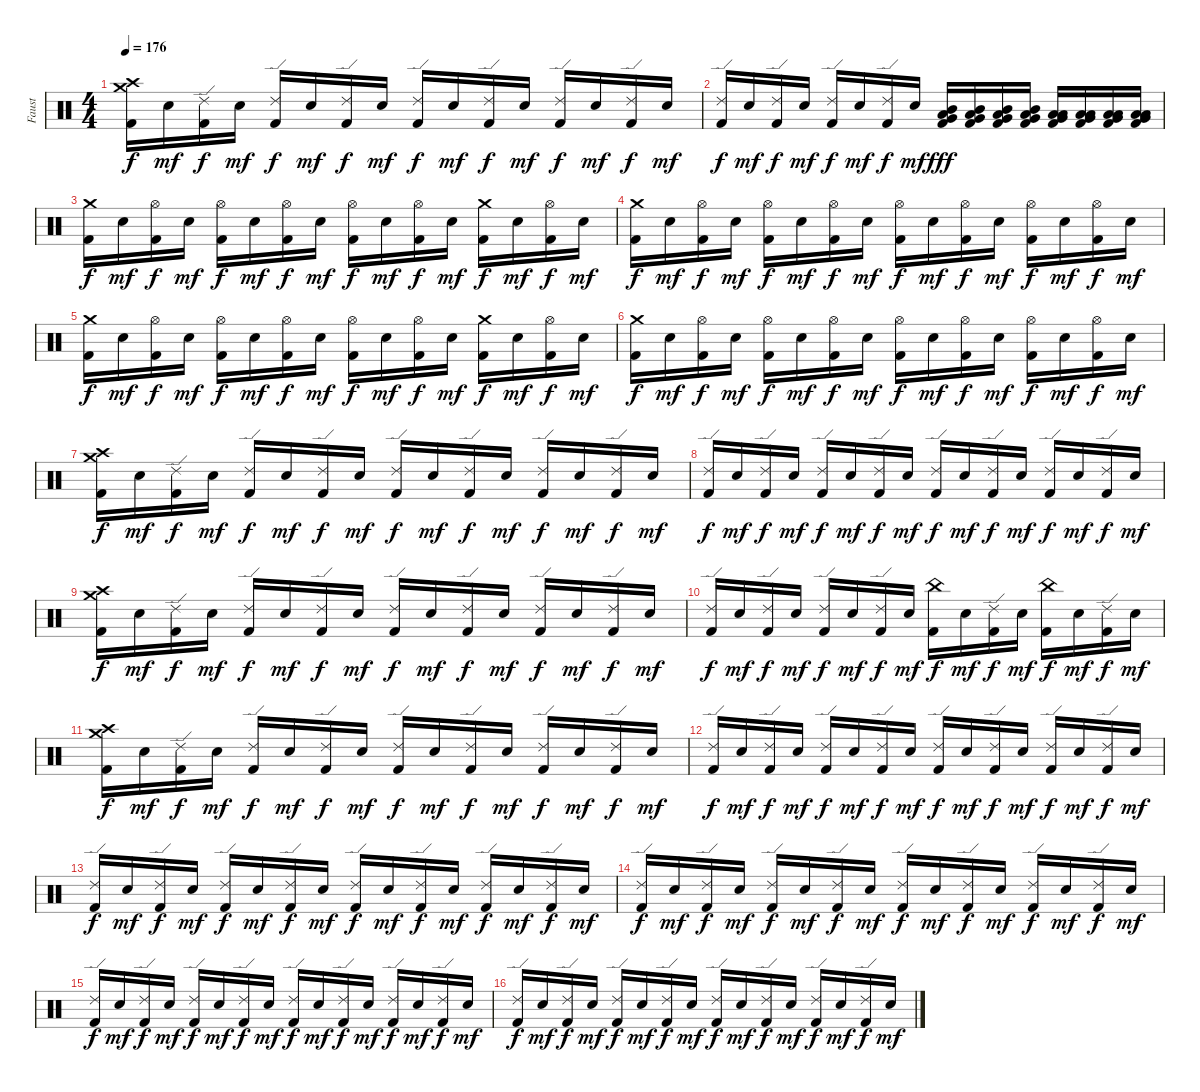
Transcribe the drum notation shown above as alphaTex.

\track ("Faust" "Faust") {instrument percussion}
\staff {score}
\articulation defaults
\ts (4 4)
\tempo 176
\clef neutral
\ks c
("Crash high (hit)" "Crash medium (hit)" "Kick (hit) 2").16{dy f} "Electric Snare (hit)".16{dy mf} ("Ride (edge) 2" "Kick (hit) 2").16{dy f} "Electric Snare (hit)".16{dy mf} ("Ride (edge) 2" "Kick (hit) 2").16{dy f} "Electric Snare (hit)".16{dy mf} ("Ride (edge) 2" "Kick (hit) 2").16{dy f} "Electric Snare (hit)".16{dy mf} ("Ride (edge) 2" "Kick (hit) 2").16{dy f} "Electric Snare (hit)".16{dy mf} ("Ride (edge) 2" "Kick (hit) 2").16{dy f} "Electric Snare (hit)".16{dy mf} ("Ride (edge) 2" "Kick (hit) 2").16{dy f} "Electric Snare (hit)".16{dy mf} ("Ride (edge) 2" "Kick (hit) 2").16{dy f} "Electric Snare (hit)".16{dy mf} |
("Ride (edge) 2" "Kick (hit) 2").16{dy f} "Electric Snare (hit)".16{dy mf} ("Ride (edge) 2" "Kick (hit) 2").16{dy f} "Electric Snare (hit)".16{dy mf} ("Ride (edge) 2" "Kick (hit) 2").16{dy f} "Electric Snare (hit)".16{dy mf} ("Ride (edge) 2" "Kick (hit) 2").16{dy f} "Electric Snare (hit)".16{dy mf} ("Mid Tom (hit)" "Low Tom (hit)" "Very Low Tom (hit)" "Kick (hit) 2").16{dy fff} ("Mid Tom (hit)" "Low Tom (hit)" "Very Low Tom (hit)" "Kick (hit) 2").16 ("Mid Tom (hit)" "Low Tom (hit)" "Very Low Tom (hit)" "Kick (hit) 2").16 ("Mid Tom (hit)" "Low Tom (hit)" "Very Low Tom (hit)" "Kick (hit) 2").16 ("Low Tom (hit)" "Very Low Tom (hit)" "Low Floor Tom (hit)" "Kick (hit) 2").16 ("Low Tom (hit)" "Very Low Tom (hit)" "Low Floor Tom (hit)" "Kick (hit) 2").16 ("Low Tom (hit)" "Very Low Tom (hit)" "Low Floor Tom (hit)" "Kick (hit) 2").16 ("Low Tom (hit)" "Very Low Tom (hit)" "Low Floor Tom (hit)" "Kick (hit) 2").16 |
("Crash medium (hit)" "Kick (hit) 2").16{dy f} "Electric Snare (hit)".16{dy mf} ("Hi-Hat (open)" "Kick (hit) 2").16{dy f} "Electric Snare (hit)".16{dy mf} ("Hi-Hat (open)" "Kick (hit) 2").16{dy f} "Electric Snare (hit)".16{dy mf} ("Hi-Hat (open)" "Kick (hit) 2").16{dy f} "Electric Snare (hit)".16{dy mf} ("Hi-Hat (open)" "Kick (hit) 2").16{dy f} "Electric Snare (hit)".16{dy mf} ("Hi-Hat (open)" "Kick (hit) 2").16{dy f} "Electric Snare (hit)".16{dy mf} ("Crash medium (hit)" "Kick (hit) 2").16{dy f} "Electric Snare (hit)".16{dy mf} ("Hi-Hat (open)" "Kick (hit) 2").16{dy f} "Electric Snare (hit)".16{dy mf} |
("Crash medium (hit)" "Kick (hit) 2").16{dy f} "Electric Snare (hit)".16{dy mf} ("Hi-Hat (open)" "Kick (hit) 2").16{dy f} "Electric Snare (hit)".16{dy mf} ("Hi-Hat (open)" "Kick (hit) 2").16{dy f} "Electric Snare (hit)".16{dy mf} ("Hi-Hat (open)" "Kick (hit) 2").16{dy f} "Electric Snare (hit)".16{dy mf} ("Hi-Hat (open)" "Kick (hit) 2").16{dy f} "Electric Snare (hit)".16{dy mf} ("Hi-Hat (open)" "Kick (hit) 2").16{dy f} "Electric Snare (hit)".16{dy mf} ("Hi-Hat (open)" "Kick (hit) 2").16{dy f} "Electric Snare (hit)".16{dy mf} ("Hi-Hat (open)" "Kick (hit) 2").16{dy f} "Electric Snare (hit)".16{dy mf} |
("Crash medium (hit)" "Kick (hit) 2").16{dy f} "Electric Snare (hit)".16{dy mf} ("Hi-Hat (open)" "Kick (hit) 2").16{dy f} "Electric Snare (hit)".16{dy mf} ("Hi-Hat (open)" "Kick (hit) 2").16{dy f} "Electric Snare (hit)".16{dy mf} ("Hi-Hat (open)" "Kick (hit) 2").16{dy f} "Electric Snare (hit)".16{dy mf} ("Hi-Hat (open)" "Kick (hit) 2").16{dy f} "Electric Snare (hit)".16{dy mf} ("Hi-Hat (open)" "Kick (hit) 2").16{dy f} "Electric Snare (hit)".16{dy mf} ("Crash medium (hit)" "Kick (hit) 2").16{dy f} "Electric Snare (hit)".16{dy mf} ("Hi-Hat (open)" "Kick (hit) 2").16{dy f} "Electric Snare (hit)".16{dy mf} |
("Crash medium (hit)" "Kick (hit) 2").16{dy f} "Electric Snare (hit)".16{dy mf} ("Hi-Hat (open)" "Kick (hit) 2").16{dy f} "Electric Snare (hit)".16{dy mf} ("Hi-Hat (open)" "Kick (hit) 2").16{dy f} "Electric Snare (hit)".16{dy mf} ("Hi-Hat (open)" "Kick (hit) 2").16{dy f} "Electric Snare (hit)".16{dy mf} ("Hi-Hat (open)" "Kick (hit) 2").16{dy f} "Electric Snare (hit)".16{dy mf} ("Hi-Hat (open)" "Kick (hit) 2").16{dy f} "Electric Snare (hit)".16{dy mf} ("Hi-Hat (open)" "Kick (hit) 2").16{dy f} "Electric Snare (hit)".16{dy mf} ("Hi-Hat (open)" "Kick (hit) 2").16{dy f} "Electric Snare (hit)".16{dy mf} |
("Crash high (hit)" "Crash medium (hit)" "Kick (hit) 2").16{dy f} "Electric Snare (hit)".16{dy mf} ("Ride (edge) 2" "Kick (hit) 2").16{dy f} "Electric Snare (hit)".16{dy mf} ("Ride (edge) 2" "Kick (hit) 2").16{dy f} "Electric Snare (hit)".16{dy mf} ("Ride (edge) 2" "Kick (hit) 2").16{dy f} "Electric Snare (hit)".16{dy mf} ("Ride (edge) 2" "Kick (hit) 2").16{dy f} "Electric Snare (hit)".16{dy mf} ("Ride (edge) 2" "Kick (hit) 2").16{dy f} "Electric Snare (hit)".16{dy mf} ("Ride (edge) 2" "Kick (hit) 2").16{dy f} "Electric Snare (hit)".16{dy mf} ("Ride (edge) 2" "Kick (hit) 2").16{dy f} "Electric Snare (hit)".16{dy mf} |
("Ride (edge) 2" "Kick (hit) 2").16{dy f} "Electric Snare (hit)".16{dy mf} ("Ride (edge) 2" "Kick (hit) 2").16{dy f} "Electric Snare (hit)".16{dy mf} ("Ride (edge) 2" "Kick (hit) 2").16{dy f} "Electric Snare (hit)".16{dy mf} ("Ride (edge) 2" "Kick (hit) 2").16{dy f} "Electric Snare (hit)".16{dy mf} ("Ride (edge) 2" "Kick (hit) 2").16{dy f} "Electric Snare (hit)".16{dy mf} ("Ride (edge) 2" "Kick (hit) 2").16{dy f} "Electric Snare (hit)".16{dy mf} ("Ride (edge) 2" "Kick (hit) 2").16{dy f} "Electric Snare (hit)".16{dy mf} ("Ride (edge) 2" "Kick (hit) 2").16{dy f} "Electric Snare (hit)".16{dy mf} |
("Crash high (hit)" "Crash medium (hit)" "Kick (hit) 2").16{dy f} "Electric Snare (hit)".16{dy mf} ("Ride (edge) 2" "Kick (hit) 2").16{dy f} "Electric Snare (hit)".16{dy mf} ("Ride (edge) 2" "Kick (hit) 2").16{dy f} "Electric Snare (hit)".16{dy mf} ("Ride (edge) 2" "Kick (hit) 2").16{dy f} "Electric Snare (hit)".16{dy mf} ("Ride (edge) 2" "Kick (hit) 2").16{dy f} "Electric Snare (hit)".16{dy mf} ("Ride (edge) 2" "Kick (hit) 2").16{dy f} "Electric Snare (hit)".16{dy mf} ("Ride (edge) 2" "Kick (hit) 2").16{dy f} "Electric Snare (hit)".16{dy mf} ("Ride (edge) 2" "Kick (hit) 2").16{dy f} "Electric Snare (hit)".16{dy mf} |
("Ride (edge) 2" "Kick (hit) 2").16{dy f} "Electric Snare (hit)".16{dy mf} ("Ride (edge) 2" "Kick (hit) 2").16{dy f} "Electric Snare (hit)".16{dy mf} ("Ride (edge) 2" "Kick (hit) 2").16{dy f} "Electric Snare (hit)".16{dy mf} ("Ride (edge) 2" "Kick (hit) 2").16{dy f} "Electric Snare (hit)".16{dy mf} ("China (hit)" "Kick (hit) 2").16{dy f} "Electric Snare (hit)".16{dy mf} ("Ride (edge) 2" "Kick (hit) 2").16{dy f} "Electric Snare (hit)".16{dy mf} ("China (hit)" "Kick (hit) 2").16{dy f} "Electric Snare (hit)".16{dy mf} ("Ride (edge) 2" "Kick (hit) 2").16{dy f} "Electric Snare (hit)".16{dy mf} |
("Crash high (hit)" "Crash medium (hit)" "Kick (hit) 2").16{dy f} "Electric Snare (hit)".16{dy mf} ("Ride (edge) 2" "Kick (hit) 2").16{dy f} "Electric Snare (hit)".16{dy mf} ("Ride (edge) 2" "Kick (hit) 2").16{dy f} "Electric Snare (hit)".16{dy mf} ("Ride (edge) 2" "Kick (hit) 2").16{dy f} "Electric Snare (hit)".16{dy mf} ("Ride (edge) 2" "Kick (hit) 2").16{dy f} "Electric Snare (hit)".16{dy mf} ("Ride (edge) 2" "Kick (hit) 2").16{dy f} "Electric Snare (hit)".16{dy mf} ("Ride (edge) 2" "Kick (hit) 2").16{dy f} "Electric Snare (hit)".16{dy mf} ("Ride (edge) 2" "Kick (hit) 2").16{dy f} "Electric Snare (hit)".16{dy mf} |
("Ride (edge) 2" "Kick (hit) 2").16{dy f} "Electric Snare (hit)".16{dy mf} ("Ride (edge) 2" "Kick (hit) 2").16{dy f} "Electric Snare (hit)".16{dy mf} ("Ride (edge) 2" "Kick (hit) 2").16{dy f} "Electric Snare (hit)".16{dy mf} ("Ride (edge) 2" "Kick (hit) 2").16{dy f} "Electric Snare (hit)".16{dy mf} ("Ride (edge) 2" "Kick (hit) 2").16{dy f} "Electric Snare (hit)".16{dy mf} ("Ride (edge) 2" "Kick (hit) 2").16{dy f} "Electric Snare (hit)".16{dy mf} ("Ride (edge) 2" "Kick (hit) 2").16{dy f} "Electric Snare (hit)".16{dy mf} ("Ride (edge) 2" "Kick (hit) 2").16{dy f} "Electric Snare (hit)".16{dy mf} |
("Ride (edge) 2" "Kick (hit) 2").16{dy f} "Electric Snare (hit)".16{dy mf} ("Ride (edge) 2" "Kick (hit) 2").16{dy f} "Electric Snare (hit)".16{dy mf} ("Ride (edge) 2" "Kick (hit) 2").16{dy f} "Electric Snare (hit)".16{dy mf} ("Ride (edge) 2" "Kick (hit) 2").16{dy f} "Electric Snare (hit)".16{dy mf} ("Ride (edge) 2" "Kick (hit) 2").16{dy f} "Electric Snare (hit)".16{dy mf} ("Ride (edge) 2" "Kick (hit) 2").16{dy f} "Electric Snare (hit)".16{dy mf} ("Ride (edge) 2" "Kick (hit) 2").16{dy f} "Electric Snare (hit)".16{dy mf} ("Ride (edge) 2" "Kick (hit) 2").16{dy f} "Electric Snare (hit)".16{dy mf} |
("Ride (edge) 2" "Kick (hit) 2").16{dy f} "Electric Snare (hit)".16{dy mf} ("Ride (edge) 2" "Kick (hit) 2").16{dy f} "Electric Snare (hit)".16{dy mf} ("Ride (edge) 2" "Kick (hit) 2").16{dy f} "Electric Snare (hit)".16{dy mf} ("Ride (edge) 2" "Kick (hit) 2").16{dy f} "Electric Snare (hit)".16{dy mf} ("Ride (edge) 2" "Kick (hit) 2").16{dy f} "Electric Snare (hit)".16{dy mf} ("Ride (edge) 2" "Kick (hit) 2").16{dy f} "Electric Snare (hit)".16{dy mf} ("Ride (edge) 2" "Kick (hit) 2").16{dy f} "Electric Snare (hit)".16{dy mf} ("Ride (edge) 2" "Kick (hit) 2").16{dy f} "Electric Snare (hit)".16{dy mf} |
("Ride (edge) 2" "Kick (hit) 2").16{dy f} "Electric Snare (hit)".16{dy mf} ("Ride (edge) 2" "Kick (hit) 2").16{dy f} "Electric Snare (hit)".16{dy mf} ("Ride (edge) 2" "Kick (hit) 2").16{dy f} "Electric Snare (hit)".16{dy mf} ("Ride (edge) 2" "Kick (hit) 2").16{dy f} "Electric Snare (hit)".16{dy mf} ("Ride (edge) 2" "Kick (hit) 2").16{dy f} "Electric Snare (hit)".16{dy mf} ("Ride (edge) 2" "Kick (hit) 2").16{dy f} "Electric Snare (hit)".16{dy mf} ("Ride (edge) 2" "Kick (hit) 2").16{dy f} "Electric Snare (hit)".16{dy mf} ("Ride (edge) 2" "Kick (hit) 2").16{dy f} "Electric Snare (hit)".16{dy mf} |
("Ride (edge) 2" "Kick (hit) 2").16{dy f} "Electric Snare (hit)".16{dy mf} ("Ride (edge) 2" "Kick (hit) 2").16{dy f} "Electric Snare (hit)".16{dy mf} ("Ride (edge) 2" "Kick (hit) 2").16{dy f} "Electric Snare (hit)".16{dy mf} ("Ride (edge) 2" "Kick (hit) 2").16{dy f} "Electric Snare (hit)".16{dy mf} ("Ride (edge) 2" "Kick (hit) 2").16{dy f} "Electric Snare (hit)".16{dy mf} ("Ride (edge) 2" "Kick (hit) 2").16{dy f} "Electric Snare (hit)".16{dy mf} ("Ride (edge) 2" "Kick (hit) 2").16{dy f} "Electric Snare (hit)".16{dy mf} ("Ride (edge) 2" "Kick (hit) 2").16{dy f} "Electric Snare (hit)".16{dy mf}
